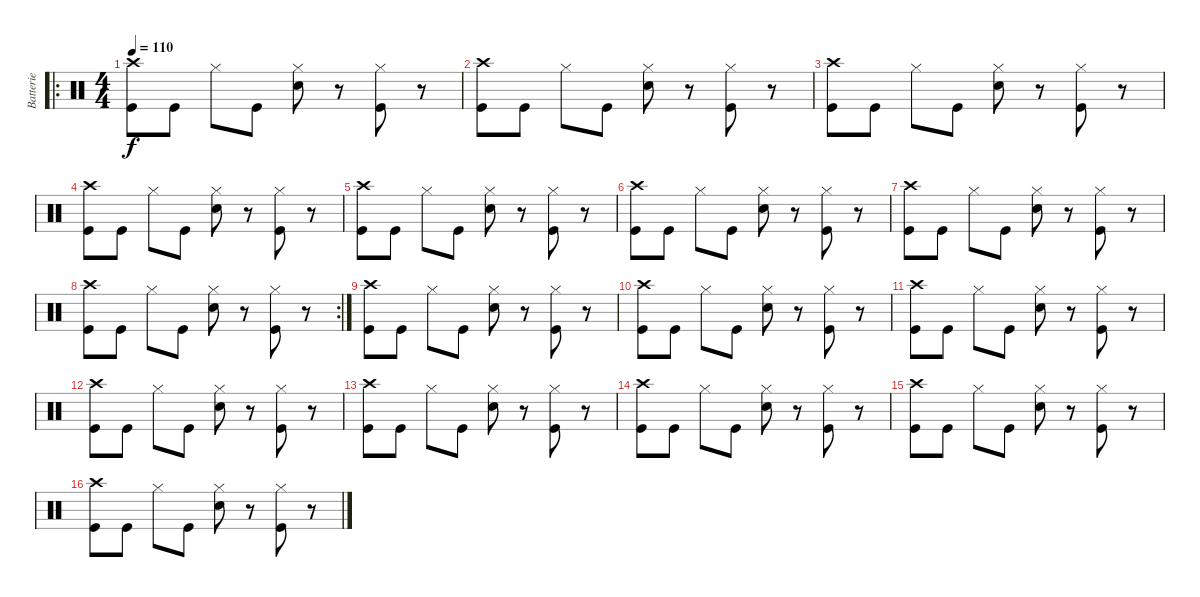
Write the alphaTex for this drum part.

\track ("Batterie" "Batterie") {instrument percussion}
\staff {score}
\articulation defaults
\ro
\ts (4 4)
\tempo 110
\clef neutral
\ks c
("Crash high (hit)" "Kick (hit)").8{dy f} "Kick (hit)".8 "Hi-Hat (closed)".8 "Kick (hit)".8 ("Hi-Hat (closed)" "Snare (hit) 2").8 r.8 ("Hi-Hat (closed)" "Kick (hit)").8 r.8 |
("Crash high (hit)" "Kick (hit)").8 "Kick (hit)".8 "Hi-Hat (closed)".8 "Kick (hit)".8 ("Hi-Hat (closed)" "Snare (hit) 2").8 r.8 ("Hi-Hat (closed)" "Kick (hit)").8 r.8 |
("Crash high (hit)" "Kick (hit)").8 "Kick (hit)".8 "Hi-Hat (closed)".8 "Kick (hit)".8 ("Hi-Hat (closed)" "Snare (hit) 2").8 r.8 ("Hi-Hat (closed)" "Kick (hit)").8 r.8 |
("Crash high (hit)" "Kick (hit)").8 "Kick (hit)".8 "Hi-Hat (closed)".8 "Kick (hit)".8 ("Hi-Hat (closed)" "Snare (hit) 2").8 r.8 ("Hi-Hat (closed)" "Kick (hit)").8 r.8 |
("Crash high (hit)" "Kick (hit)").8 "Kick (hit)".8 "Hi-Hat (closed)".8 "Kick (hit)".8 ("Hi-Hat (closed)" "Snare (hit) 2").8 r.8 ("Hi-Hat (closed)" "Kick (hit)").8 r.8 |
("Crash high (hit)" "Kick (hit)").8 "Kick (hit)".8 "Hi-Hat (closed)".8 "Kick (hit)".8 ("Hi-Hat (closed)" "Snare (hit) 2").8 r.8 ("Hi-Hat (closed)" "Kick (hit)").8 r.8 |
("Crash high (hit)" "Kick (hit)").8 "Kick (hit)".8 "Hi-Hat (closed)".8 "Kick (hit)".8 ("Hi-Hat (closed)" "Snare (hit) 2").8 r.8 ("Hi-Hat (closed)" "Kick (hit)").8 r.8 |
\rc 2
("Crash high (hit)" "Kick (hit)").8 "Kick (hit)".8 "Hi-Hat (closed)".8 "Kick (hit)".8 ("Hi-Hat (closed)" "Snare (hit) 2").8 r.8 ("Hi-Hat (closed)" "Kick (hit)").8 r.8 |
("Crash high (hit)" "Kick (hit)").8 "Kick (hit)".8 "Hi-Hat (closed)".8 "Kick (hit)".8 ("Hi-Hat (closed)" "Snare (hit) 2").8 r.8 ("Hi-Hat (closed)" "Kick (hit)").8 r.8 |
("Crash high (hit)" "Kick (hit)").8 "Kick (hit)".8 "Hi-Hat (closed)".8 "Kick (hit)".8 ("Hi-Hat (closed)" "Snare (hit) 2").8 r.8 ("Hi-Hat (closed)" "Kick (hit)").8 r.8 |
("Crash high (hit)" "Kick (hit)").8 "Kick (hit)".8 "Hi-Hat (closed)".8 "Kick (hit)".8 ("Hi-Hat (closed)" "Snare (hit) 2").8 r.8 ("Hi-Hat (closed)" "Kick (hit)").8 r.8 |
("Crash high (hit)" "Kick (hit)").8 "Kick (hit)".8 "Hi-Hat (closed)".8 "Kick (hit)".8 ("Hi-Hat (closed)" "Snare (hit) 2").8 r.8 ("Hi-Hat (closed)" "Kick (hit)").8 r.8 |
("Crash high (hit)" "Kick (hit)").8 "Kick (hit)".8 "Hi-Hat (closed)".8 "Kick (hit)".8 ("Hi-Hat (closed)" "Snare (hit) 2").8 r.8 ("Hi-Hat (closed)" "Kick (hit)").8 r.8 |
("Crash high (hit)" "Kick (hit)").8 "Kick (hit)".8 "Hi-Hat (closed)".8 "Kick (hit)".8 ("Hi-Hat (closed)" "Snare (hit) 2").8 r.8 ("Hi-Hat (closed)" "Kick (hit)").8 r.8 |
("Crash high (hit)" "Kick (hit)").8 "Kick (hit)".8 "Hi-Hat (closed)".8 "Kick (hit)".8 ("Hi-Hat (closed)" "Snare (hit) 2").8 r.8 ("Hi-Hat (closed)" "Kick (hit)").8 r.8 |
("Crash high (hit)" "Kick (hit)").8 "Kick (hit)".8 "Hi-Hat (closed)".8 "Kick (hit)".8 ("Hi-Hat (closed)" "Snare (hit) 2").8 r.8 ("Hi-Hat (closed)" "Kick (hit)").8 r.8
